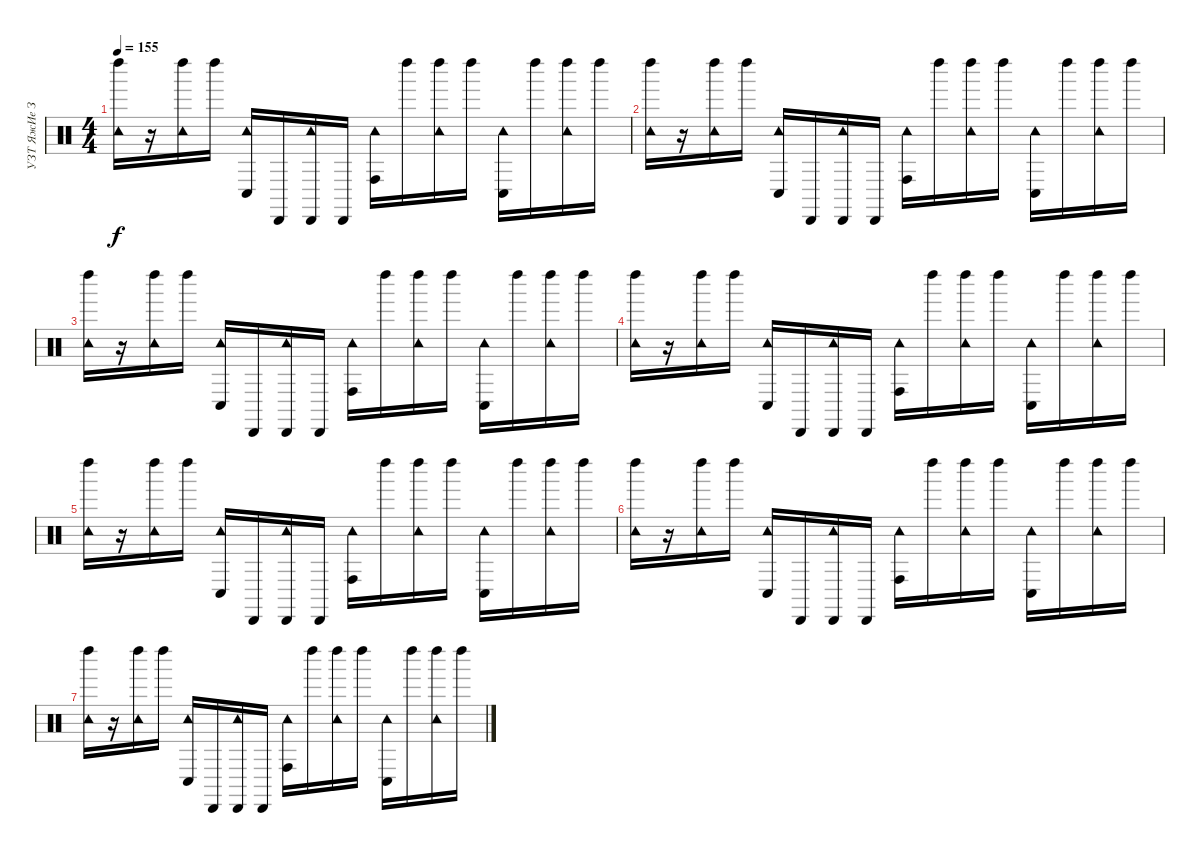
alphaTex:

\track ("УЗТ ЯжИе Зн" "УЗТ ЯжИе З") {instrument percussion}
\staff {score}
\articulation defaults
\ts (4 4)
\tempo 155
\clef neutral
\ks c
("Tambourine (hit)" "Left Maraca (hit)").16{dy f} r.16 ("Tambourine (hit)" "Left Maraca (hit)").16 "Left Maraca (hit)".16 ("Tambourine (hit)" "Conga low (hit)").16 "Cabasa (hit)".16 ("Tambourine (hit)" "Cabasa (hit)").16 "Cabasa (hit)".16 ("Tambourine (hit)" "Conga high (hit)").16 "Left Maraca (hit)".16 ("Tambourine (hit)" "Left Maraca (hit)").16 "Left Maraca (hit)".16 ("Tambourine (hit)" "Conga low (hit)").16 "Left Maraca (hit)".16 ("Tambourine (hit)" "Left Maraca (hit)").16 "Left Maraca (hit)".16 |
("Tambourine (hit)" "Left Maraca (hit)").16 r.16 ("Tambourine (hit)" "Left Maraca (hit)").16 "Left Maraca (hit)".16 ("Tambourine (hit)" "Conga low (hit)").16 "Cabasa (hit)".16 ("Tambourine (hit)" "Cabasa (hit)").16 "Cabasa (hit)".16 ("Tambourine (hit)" "Conga high (hit)").16 "Left Maraca (hit)".16 ("Tambourine (hit)" "Left Maraca (hit)").16 "Left Maraca (hit)".16 ("Tambourine (hit)" "Conga low (hit)").16 "Left Maraca (hit)".16 ("Tambourine (hit)" "Left Maraca (hit)").16 "Left Maraca (hit)".16 |
("Tambourine (hit)" "Left Maraca (hit)").16 r.16 ("Tambourine (hit)" "Left Maraca (hit)").16 "Left Maraca (hit)".16 ("Tambourine (hit)" "Conga low (hit)").16 "Cabasa (hit)".16 ("Tambourine (hit)" "Cabasa (hit)").16 "Cabasa (hit)".16 ("Tambourine (hit)" "Conga high (hit)").16 "Left Maraca (hit)".16 ("Tambourine (hit)" "Left Maraca (hit)").16 "Left Maraca (hit)".16 ("Tambourine (hit)" "Conga low (hit)").16 "Left Maraca (hit)".16 ("Tambourine (hit)" "Left Maraca (hit)").16 "Left Maraca (hit)".16 |
("Tambourine (hit)" "Left Maraca (hit)").16 r.16 ("Tambourine (hit)" "Left Maraca (hit)").16 "Left Maraca (hit)".16 ("Tambourine (hit)" "Conga low (hit)").16 "Cabasa (hit)".16 ("Tambourine (hit)" "Cabasa (hit)").16 "Cabasa (hit)".16 ("Tambourine (hit)" "Conga high (hit)").16 "Left Maraca (hit)".16 ("Tambourine (hit)" "Left Maraca (hit)").16 "Left Maraca (hit)".16 ("Tambourine (hit)" "Conga low (hit)").16 "Left Maraca (hit)".16 ("Tambourine (hit)" "Left Maraca (hit)").16 "Left Maraca (hit)".16 |
("Tambourine (hit)" "Left Maraca (hit)").16 r.16 ("Tambourine (hit)" "Left Maraca (hit)").16 "Left Maraca (hit)".16 ("Tambourine (hit)" "Conga low (hit)").16 "Cabasa (hit)".16 ("Tambourine (hit)" "Cabasa (hit)").16 "Cabasa (hit)".16 ("Tambourine (hit)" "Conga high (hit)").16 "Left Maraca (hit)".16 ("Tambourine (hit)" "Left Maraca (hit)").16 "Left Maraca (hit)".16 ("Tambourine (hit)" "Conga low (hit)").16 "Left Maraca (hit)".16 ("Tambourine (hit)" "Left Maraca (hit)").16 "Left Maraca (hit)".16 |
("Tambourine (hit)" "Left Maraca (hit)").16 r.16 ("Tambourine (hit)" "Left Maraca (hit)").16 "Left Maraca (hit)".16 ("Tambourine (hit)" "Conga low (hit)").16 "Cabasa (hit)".16 ("Tambourine (hit)" "Cabasa (hit)").16 "Cabasa (hit)".16 ("Tambourine (hit)" "Conga high (hit)").16 "Left Maraca (hit)".16 ("Tambourine (hit)" "Left Maraca (hit)").16 "Left Maraca (hit)".16 ("Tambourine (hit)" "Conga low (hit)").16 "Left Maraca (hit)".16 ("Tambourine (hit)" "Left Maraca (hit)").16 "Left Maraca (hit)".16 |
("Tambourine (hit)" "Left Maraca (hit)").16 r.16 ("Tambourine (hit)" "Left Maraca (hit)").16 "Left Maraca (hit)".16 ("Tambourine (hit)" "Conga low (hit)").16 "Cabasa (hit)".16 ("Tambourine (hit)" "Cabasa (hit)").16 "Cabasa (hit)".16 ("Tambourine (hit)" "Conga high (hit)").16 "Left Maraca (hit)".16 ("Tambourine (hit)" "Left Maraca (hit)").16 "Left Maraca (hit)".16 ("Tambourine (hit)" "Conga low (hit)").16 "Left Maraca (hit)".16 ("Tambourine (hit)" "Left Maraca (hit)").16 "Left Maraca (hit)".16
